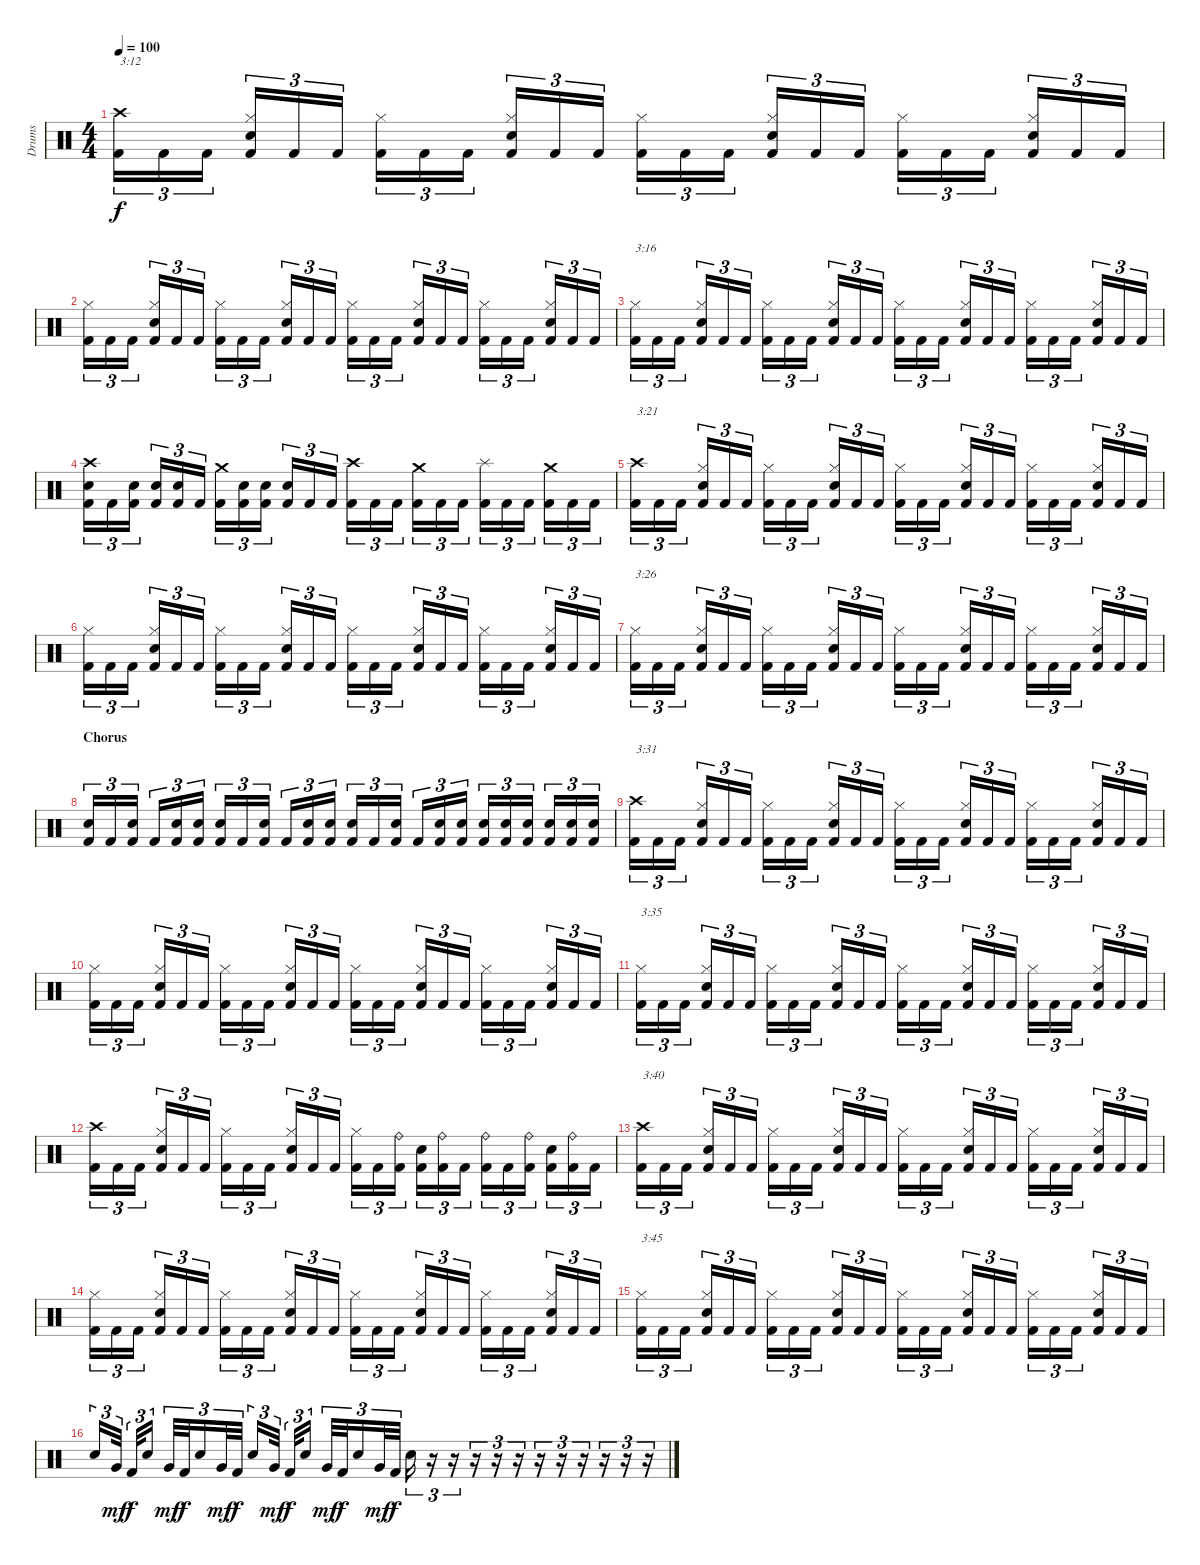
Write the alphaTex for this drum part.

\track ("Drums" "Drums") {instrument percussion}
\staff {score}
\articulation defaults
\ts (4 4)
\tempo 100
\clef neutral
\ks c
("Crash high (hit)" "Kick (hit) 2").16{tu (3 2) txt "3:12" dy f} "Kick (hit) 2".16{tu (3 2)} "Kick (hit) 2".16{tu (3 2)} ("Hi-Hat (closed)" "Snare (hit) 2" "Kick (hit) 2").16{tu (3 2)} "Kick (hit) 2".16{tu (3 2)} "Kick (hit) 2".16{tu (3 2)} ("Hi-Hat (closed)" "Kick (hit) 2").16{tu (3 2)} "Kick (hit) 2".16{tu (3 2)} "Kick (hit) 2".16{tu (3 2)} ("Hi-Hat (closed)" "Snare (hit) 2" "Kick (hit) 2").16{tu (3 2)} "Kick (hit) 2".16{tu (3 2)} "Kick (hit) 2".16{tu (3 2)} ("Hi-Hat (closed)" "Kick (hit) 2").16{tu (3 2)} "Kick (hit) 2".16{tu (3 2)} "Kick (hit) 2".16{tu (3 2)} ("Hi-Hat (closed)" "Snare (hit) 2" "Kick (hit) 2").16{tu (3 2)} "Kick (hit) 2".16{tu (3 2)} "Kick (hit) 2".16{tu (3 2)} ("Hi-Hat (closed)" "Kick (hit) 2").16{tu (3 2)} "Kick (hit) 2".16{tu (3 2)} "Kick (hit) 2".16{tu (3 2)} ("Hi-Hat (closed)" "Snare (hit) 2" "Kick (hit) 2").16{tu (3 2)} "Kick (hit) 2".16{tu (3 2)} "Kick (hit) 2".16{tu (3 2)} |
("Hi-Hat (closed)" "Kick (hit) 2").16{tu (3 2)} "Kick (hit) 2".16{tu (3 2)} "Kick (hit) 2".16{tu (3 2)} ("Hi-Hat (closed)" "Snare (hit) 2" "Kick (hit) 2").16{tu (3 2)} "Kick (hit) 2".16{tu (3 2)} "Kick (hit) 2".16{tu (3 2)} ("Hi-Hat (closed)" "Kick (hit) 2").16{tu (3 2)} "Kick (hit) 2".16{tu (3 2)} "Kick (hit) 2".16{tu (3 2)} ("Hi-Hat (closed)" "Snare (hit) 2" "Kick (hit) 2").16{tu (3 2)} "Kick (hit) 2".16{tu (3 2)} "Kick (hit) 2".16{tu (3 2)} ("Hi-Hat (closed)" "Kick (hit) 2").16{tu (3 2)} "Kick (hit) 2".16{tu (3 2)} "Kick (hit) 2".16{tu (3 2)} ("Hi-Hat (closed)" "Snare (hit) 2" "Kick (hit) 2").16{tu (3 2)} "Kick (hit) 2".16{tu (3 2)} "Kick (hit) 2".16{tu (3 2)} ("Hi-Hat (closed)" "Kick (hit) 2").16{tu (3 2)} "Kick (hit) 2".16{tu (3 2)} "Kick (hit) 2".16{tu (3 2)} ("Hi-Hat (closed)" "Snare (hit) 2" "Kick (hit) 2").16{tu (3 2)} "Kick (hit) 2".16{tu (3 2)} "Kick (hit) 2".16{tu (3 2)} |
("Hi-Hat (closed)" "Kick (hit) 2").16{tu (3 2) txt "3:16"} "Kick (hit) 2".16{tu (3 2)} "Kick (hit) 2".16{tu (3 2)} ("Hi-Hat (closed)" "Snare (hit) 2" "Kick (hit) 2").16{tu (3 2)} "Kick (hit) 2".16{tu (3 2)} "Kick (hit) 2".16{tu (3 2)} ("Hi-Hat (closed)" "Kick (hit) 2").16{tu (3 2)} "Kick (hit) 2".16{tu (3 2)} "Kick (hit) 2".16{tu (3 2)} ("Hi-Hat (closed)" "Snare (hit) 2" "Kick (hit) 2").16{tu (3 2)} "Kick (hit) 2".16{tu (3 2)} "Kick (hit) 2".16{tu (3 2)} ("Hi-Hat (closed)" "Kick (hit) 2").16{tu (3 2)} "Kick (hit) 2".16{tu (3 2)} "Kick (hit) 2".16{tu (3 2)} ("Hi-Hat (closed)" "Snare (hit) 2" "Kick (hit) 2").16{tu (3 2)} "Kick (hit) 2".16{tu (3 2)} "Kick (hit) 2".16{tu (3 2)} ("Hi-Hat (closed)" "Kick (hit) 2").16{tu (3 2)} "Kick (hit) 2".16{tu (3 2)} "Kick (hit) 2".16{tu (3 2)} ("Hi-Hat (closed)" "Snare (hit) 2" "Kick (hit) 2").16{tu (3 2)} "Kick (hit) 2".16{tu (3 2)} "Kick (hit) 2".16{tu (3 2)} |
("Crash high (hit)" "Snare (hit) 2" "Kick (hit) 2").16{tu (3 2)} "Kick (hit) 2".16{tu (3 2)} ("Snare (hit) 2" "Kick (hit) 2").16{tu (3 2)} ("Snare (hit) 2" "Kick (hit) 2").16{tu (3 2)} ("Snare (hit) 2" "Kick (hit) 2").16{tu (3 2)} "Kick (hit) 2".16{tu (3 2)} ("Crash medium (hit)" "Kick (hit) 2").16{tu (3 2)} ("Snare (hit) 2" "Kick (hit) 2").16{tu (3 2)} ("Snare (hit) 2" "Kick (hit) 2").16{tu (3 2)} ("Snare (hit) 2" "Kick (hit) 2").16{tu (3 2)} "Kick (hit) 2".16{tu (3 2)} "Kick (hit) 2".16{tu (3 2)} ("Crash high (hit)" "Kick (hit) 2").16{tu (3 2)} "Kick (hit) 2".16{tu (3 2)} "Kick (hit) 2".16{tu (3 2)} ("Crash medium (hit)" "Kick (hit) 2").16{tu (3 2)} "Kick (hit) 2".16{tu (3 2)} "Kick (hit) 2".16{tu (3 2)} ("Splash (hit)" "Kick (hit) 2").16{tu (3 2)} "Kick (hit) 2".16{tu (3 2)} "Kick (hit) 2".16{tu (3 2)} ("Crash medium (hit)" "Kick (hit) 2").16{tu (3 2)} "Kick (hit) 2".16{tu (3 2)} "Kick (hit) 2".16{tu (3 2)} |
("Crash high (hit)" "Kick (hit) 2").16{tu (3 2) txt "3:21"} "Kick (hit) 2".16{tu (3 2)} "Kick (hit) 2".16{tu (3 2)} ("Hi-Hat (closed)" "Snare (hit) 2" "Kick (hit) 2").16{tu (3 2)} "Kick (hit) 2".16{tu (3 2)} "Kick (hit) 2".16{tu (3 2)} ("Hi-Hat (closed)" "Kick (hit) 2").16{tu (3 2)} "Kick (hit) 2".16{tu (3 2)} "Kick (hit) 2".16{tu (3 2)} ("Hi-Hat (closed)" "Snare (hit) 2" "Kick (hit) 2").16{tu (3 2)} "Kick (hit) 2".16{tu (3 2)} "Kick (hit) 2".16{tu (3 2)} ("Hi-Hat (closed)" "Kick (hit) 2").16{tu (3 2)} "Kick (hit) 2".16{tu (3 2)} "Kick (hit) 2".16{tu (3 2)} ("Hi-Hat (closed)" "Snare (hit) 2" "Kick (hit) 2").16{tu (3 2)} "Kick (hit) 2".16{tu (3 2)} "Kick (hit) 2".16{tu (3 2)} ("Hi-Hat (closed)" "Kick (hit) 2").16{tu (3 2)} "Kick (hit) 2".16{tu (3 2)} "Kick (hit) 2".16{tu (3 2)} ("Hi-Hat (closed)" "Snare (hit) 2" "Kick (hit) 2").16{tu (3 2)} "Kick (hit) 2".16{tu (3 2)} "Kick (hit) 2".16{tu (3 2)} |
("Hi-Hat (closed)" "Kick (hit) 2").16{tu (3 2)} "Kick (hit) 2".16{tu (3 2)} "Kick (hit) 2".16{tu (3 2)} ("Hi-Hat (closed)" "Snare (hit) 2" "Kick (hit) 2").16{tu (3 2)} "Kick (hit) 2".16{tu (3 2)} "Kick (hit) 2".16{tu (3 2)} ("Hi-Hat (closed)" "Kick (hit) 2").16{tu (3 2)} "Kick (hit) 2".16{tu (3 2)} "Kick (hit) 2".16{tu (3 2)} ("Hi-Hat (closed)" "Snare (hit) 2" "Kick (hit) 2").16{tu (3 2)} "Kick (hit) 2".16{tu (3 2)} "Kick (hit) 2".16{tu (3 2)} ("Hi-Hat (closed)" "Kick (hit) 2").16{tu (3 2)} "Kick (hit) 2".16{tu (3 2)} "Kick (hit) 2".16{tu (3 2)} ("Hi-Hat (closed)" "Snare (hit) 2" "Kick (hit) 2").16{tu (3 2)} "Kick (hit) 2".16{tu (3 2)} "Kick (hit) 2".16{tu (3 2)} ("Hi-Hat (closed)" "Kick (hit) 2").16{tu (3 2)} "Kick (hit) 2".16{tu (3 2)} "Kick (hit) 2".16{tu (3 2)} ("Hi-Hat (closed)" "Snare (hit) 2" "Kick (hit) 2").16{tu (3 2)} "Kick (hit) 2".16{tu (3 2)} "Kick (hit) 2".16{tu (3 2)} |
("Hi-Hat (closed)" "Kick (hit) 2").16{tu (3 2) txt "3:26"} "Kick (hit) 2".16{tu (3 2)} "Kick (hit) 2".16{tu (3 2)} ("Hi-Hat (closed)" "Snare (hit) 2" "Kick (hit) 2").16{tu (3 2)} "Kick (hit) 2".16{tu (3 2)} "Kick (hit) 2".16{tu (3 2)} ("Hi-Hat (closed)" "Kick (hit) 2").16{tu (3 2)} "Kick (hit) 2".16{tu (3 2)} "Kick (hit) 2".16{tu (3 2)} ("Hi-Hat (closed)" "Snare (hit) 2" "Kick (hit) 2").16{tu (3 2)} "Kick (hit) 2".16{tu (3 2)} "Kick (hit) 2".16{tu (3 2)} ("Hi-Hat (closed)" "Kick (hit) 2").16{tu (3 2)} "Kick (hit) 2".16{tu (3 2)} "Kick (hit) 2".16{tu (3 2)} ("Hi-Hat (closed)" "Snare (hit) 2" "Kick (hit) 2").16{tu (3 2)} "Kick (hit) 2".16{tu (3 2)} "Kick (hit) 2".16{tu (3 2)} ("Hi-Hat (closed)" "Kick (hit) 2").16{tu (3 2)} "Kick (hit) 2".16{tu (3 2)} "Kick (hit) 2".16{tu (3 2)} ("Hi-Hat (closed)" "Snare (hit) 2" "Kick (hit) 2").16{tu (3 2)} "Kick (hit) 2".16{tu (3 2)} "Kick (hit) 2".16{tu (3 2)} |
\section ("" "Chorus")
("Snare (hit) 2" "Kick (hit) 2").16{tu (3 2)} "Kick (hit) 2".16{tu (3 2)} ("Snare (hit) 2" "Kick (hit) 2").16{tu (3 2)} "Kick (hit) 2".16{tu (3 2)} ("Snare (hit) 2" "Kick (hit) 2").16{tu (3 2)} ("Snare (hit) 2" "Kick (hit) 2").16{tu (3 2)} ("Snare (hit) 2" "Kick (hit) 2").16{tu (3 2)} "Kick (hit) 2".16{tu (3 2)} ("Snare (hit) 2" "Kick (hit) 2").16{tu (3 2)} "Kick (hit) 2".16{tu (3 2)} ("Snare (hit) 2" "Kick (hit) 2").16{tu (3 2)} ("Snare (hit) 2" "Kick (hit) 2").16{tu (3 2)} ("Snare (hit) 2" "Kick (hit) 2").16{tu (3 2)} "Kick (hit) 2".16{tu (3 2)} ("Snare (hit) 2" "Kick (hit) 2").16{tu (3 2)} "Kick (hit) 2".16{tu (3 2)} ("Snare (hit) 2" "Kick (hit) 2").16{tu (3 2)} ("Snare (hit) 2" "Kick (hit) 2").16{tu (3 2)} ("Snare (hit) 2" "Kick (hit) 2").16{tu (3 2)} ("Snare (hit) 2" "Kick (hit) 2").16{tu (3 2)} ("Snare (hit) 2" "Kick (hit) 2").16{tu (3 2)} ("Snare (hit) 2" "Kick (hit) 2").16{tu (3 2)} ("Snare (hit) 2" "Kick (hit) 2").16{tu (3 2)} ("Snare (hit) 2" "Kick (hit) 2").16{tu (3 2)} |
("Crash high (hit)" "Kick (hit) 2").16{tu (3 2) txt "3:31"} "Kick (hit) 2".16{tu (3 2)} "Kick (hit) 2".16{tu (3 2)} ("Hi-Hat (closed)" "Snare (hit) 2" "Kick (hit) 2").16{tu (3 2)} "Kick (hit) 2".16{tu (3 2)} "Kick (hit) 2".16{tu (3 2)} ("Hi-Hat (closed)" "Kick (hit) 2").16{tu (3 2)} "Kick (hit) 2".16{tu (3 2)} "Kick (hit) 2".16{tu (3 2)} ("Hi-Hat (closed)" "Snare (hit) 2" "Kick (hit) 2").16{tu (3 2)} "Kick (hit) 2".16{tu (3 2)} "Kick (hit) 2".16{tu (3 2)} ("Hi-Hat (closed)" "Kick (hit) 2").16{tu (3 2)} "Kick (hit) 2".16{tu (3 2)} "Kick (hit) 2".16{tu (3 2)} ("Hi-Hat (closed)" "Snare (hit) 2" "Kick (hit) 2").16{tu (3 2)} "Kick (hit) 2".16{tu (3 2)} "Kick (hit) 2".16{tu (3 2)} ("Hi-Hat (closed)" "Kick (hit) 2").16{tu (3 2)} "Kick (hit) 2".16{tu (3 2)} "Kick (hit) 2".16{tu (3 2)} ("Hi-Hat (closed)" "Snare (hit) 2" "Kick (hit) 2").16{tu (3 2)} "Kick (hit) 2".16{tu (3 2)} "Kick (hit) 2".16{tu (3 2)} |
("Hi-Hat (closed)" "Kick (hit) 2").16{tu (3 2)} "Kick (hit) 2".16{tu (3 2)} "Kick (hit) 2".16{tu (3 2)} ("Hi-Hat (closed)" "Snare (hit) 2" "Kick (hit) 2").16{tu (3 2)} "Kick (hit) 2".16{tu (3 2)} "Kick (hit) 2".16{tu (3 2)} ("Hi-Hat (closed)" "Kick (hit) 2").16{tu (3 2)} "Kick (hit) 2".16{tu (3 2)} "Kick (hit) 2".16{tu (3 2)} ("Hi-Hat (closed)" "Snare (hit) 2" "Kick (hit) 2").16{tu (3 2)} "Kick (hit) 2".16{tu (3 2)} "Kick (hit) 2".16{tu (3 2)} ("Hi-Hat (closed)" "Kick (hit) 2").16{tu (3 2)} "Kick (hit) 2".16{tu (3 2)} "Kick (hit) 2".16{tu (3 2)} ("Hi-Hat (closed)" "Snare (hit) 2" "Kick (hit) 2").16{tu (3 2)} "Kick (hit) 2".16{tu (3 2)} "Kick (hit) 2".16{tu (3 2)} ("Hi-Hat (closed)" "Kick (hit) 2").16{tu (3 2)} "Kick (hit) 2".16{tu (3 2)} "Kick (hit) 2".16{tu (3 2)} ("Hi-Hat (closed)" "Snare (hit) 2" "Kick (hit) 2").16{tu (3 2)} "Kick (hit) 2".16{tu (3 2)} "Kick (hit) 2".16{tu (3 2)} |
("Hi-Hat (closed)" "Kick (hit) 2").16{tu (3 2) txt "3:35"} "Kick (hit) 2".16{tu (3 2)} "Kick (hit) 2".16{tu (3 2)} ("Hi-Hat (closed)" "Snare (hit) 2" "Kick (hit) 2").16{tu (3 2)} "Kick (hit) 2".16{tu (3 2)} "Kick (hit) 2".16{tu (3 2)} ("Hi-Hat (closed)" "Kick (hit) 2").16{tu (3 2)} "Kick (hit) 2".16{tu (3 2)} "Kick (hit) 2".16{tu (3 2)} ("Hi-Hat (closed)" "Snare (hit) 2" "Kick (hit) 2").16{tu (3 2)} "Kick (hit) 2".16{tu (3 2)} "Kick (hit) 2".16{tu (3 2)} ("Hi-Hat (closed)" "Kick (hit) 2").16{tu (3 2)} "Kick (hit) 2".16{tu (3 2)} "Kick (hit) 2".16{tu (3 2)} ("Hi-Hat (closed)" "Snare (hit) 2" "Kick (hit) 2").16{tu (3 2)} "Kick (hit) 2".16{tu (3 2)} "Kick (hit) 2".16{tu (3 2)} ("Hi-Hat (closed)" "Kick (hit) 2").16{tu (3 2)} "Kick (hit) 2".16{tu (3 2)} "Kick (hit) 2".16{tu (3 2)} ("Hi-Hat (closed)" "Snare (hit) 2" "Kick (hit) 2").16{tu (3 2)} "Kick (hit) 2".16{tu (3 2)} "Kick (hit) 2".16{tu (3 2)} |
("Crash high (hit)" "Kick (hit) 2").16{tu (3 2)} "Kick (hit) 2".16{tu (3 2)} "Kick (hit) 2".16{tu (3 2)} ("Hi-Hat (closed)" "Snare (hit) 2" "Kick (hit) 2").16{tu (3 2)} "Kick (hit) 2".16{tu (3 2)} "Kick (hit) 2".16{tu (3 2)} ("Hi-Hat (closed)" "Kick (hit) 2").16{tu (3 2)} "Kick (hit) 2".16{tu (3 2)} "Kick (hit) 2".16{tu (3 2)} ("Hi-Hat (closed)" "Snare (hit) 2" "Kick (hit) 2").16{tu (3 2)} "Kick (hit) 2".16{tu (3 2)} "Kick (hit) 2".16{tu (3 2)} ("Hi-Hat (closed)" "Kick (hit) 2").16{tu (3 2)} "Kick (hit) 2".16{tu (3 2)} ("Ride (bell)" "Kick (hit) 2").16{tu (3 2)} ("Snare (hit) 2" "Kick (hit) 2").16{tu (3 2)} ("Ride (bell)" "Kick (hit) 2").16{tu (3 2)} "Kick (hit) 2".16{tu (3 2)} ("Ride (bell)" "Kick (hit) 2").16{tu (3 2)} "Kick (hit) 2".16{tu (3 2)} ("Ride (bell)" "Kick (hit) 2").16{tu (3 2)} ("Snare (hit) 2" "Kick (hit) 2").16{tu (3 2)} ("Ride (bell)" "Kick (hit) 2").16{tu (3 2)} "Kick (hit) 2".16{tu (3 2)} |
("Crash high (hit)" "Kick (hit) 2").16{tu (3 2) txt "3:40"} "Kick (hit) 2".16{tu (3 2)} "Kick (hit) 2".16{tu (3 2)} ("Hi-Hat (closed)" "Snare (hit) 2" "Kick (hit) 2").16{tu (3 2)} "Kick (hit) 2".16{tu (3 2)} "Kick (hit) 2".16{tu (3 2)} ("Hi-Hat (closed)" "Kick (hit) 2").16{tu (3 2)} "Kick (hit) 2".16{tu (3 2)} "Kick (hit) 2".16{tu (3 2)} ("Hi-Hat (closed)" "Snare (hit) 2" "Kick (hit) 2").16{tu (3 2)} "Kick (hit) 2".16{tu (3 2)} "Kick (hit) 2".16{tu (3 2)} ("Hi-Hat (closed)" "Kick (hit) 2").16{tu (3 2)} "Kick (hit) 2".16{tu (3 2)} "Kick (hit) 2".16{tu (3 2)} ("Hi-Hat (closed)" "Snare (hit) 2" "Kick (hit) 2").16{tu (3 2)} "Kick (hit) 2".16{tu (3 2)} "Kick (hit) 2".16{tu (3 2)} ("Hi-Hat (closed)" "Kick (hit) 2").16{tu (3 2)} "Kick (hit) 2".16{tu (3 2)} "Kick (hit) 2".16{tu (3 2)} ("Hi-Hat (closed)" "Snare (hit) 2" "Kick (hit) 2").16{tu (3 2)} "Kick (hit) 2".16{tu (3 2)} "Kick (hit) 2".16{tu (3 2)} |
("Hi-Hat (closed)" "Kick (hit) 2").16{tu (3 2)} "Kick (hit) 2".16{tu (3 2)} "Kick (hit) 2".16{tu (3 2)} ("Hi-Hat (closed)" "Snare (hit) 2" "Kick (hit) 2").16{tu (3 2)} "Kick (hit) 2".16{tu (3 2)} "Kick (hit) 2".16{tu (3 2)} ("Hi-Hat (closed)" "Kick (hit) 2").16{tu (3 2)} "Kick (hit) 2".16{tu (3 2)} "Kick (hit) 2".16{tu (3 2)} ("Hi-Hat (closed)" "Snare (hit) 2" "Kick (hit) 2").16{tu (3 2)} "Kick (hit) 2".16{tu (3 2)} "Kick (hit) 2".16{tu (3 2)} ("Hi-Hat (closed)" "Kick (hit) 2").16{tu (3 2)} "Kick (hit) 2".16{tu (3 2)} "Kick (hit) 2".16{tu (3 2)} ("Hi-Hat (closed)" "Snare (hit) 2" "Kick (hit) 2").16{tu (3 2)} "Kick (hit) 2".16{tu (3 2)} "Kick (hit) 2".16{tu (3 2)} ("Hi-Hat (closed)" "Kick (hit) 2").16{tu (3 2)} "Kick (hit) 2".16{tu (3 2)} "Kick (hit) 2".16{tu (3 2)} ("Hi-Hat (closed)" "Snare (hit) 2" "Kick (hit) 2").16{tu (3 2)} "Kick (hit) 2".16{tu (3 2)} "Kick (hit) 2".16{tu (3 2)} |
("Hi-Hat (closed)" "Kick (hit) 2").16{tu (3 2) txt "3:45"} "Kick (hit) 2".16{tu (3 2)} "Kick (hit) 2".16{tu (3 2)} ("Hi-Hat (closed)" "Snare (hit) 2" "Kick (hit) 2").16{tu (3 2)} "Kick (hit) 2".16{tu (3 2)} "Kick (hit) 2".16{tu (3 2)} ("Hi-Hat (closed)" "Kick (hit) 2").16{tu (3 2)} "Kick (hit) 2".16{tu (3 2)} "Kick (hit) 2".16{tu (3 2)} ("Hi-Hat (closed)" "Snare (hit) 2" "Kick (hit) 2").16{tu (3 2)} "Kick (hit) 2".16{tu (3 2)} "Kick (hit) 2".16{tu (3 2)} ("Hi-Hat (closed)" "Kick (hit) 2").16{tu (3 2)} "Kick (hit) 2".16{tu (3 2)} "Kick (hit) 2".16{tu (3 2)} ("Hi-Hat (closed)" "Snare (hit) 2" "Kick (hit) 2").16{tu (3 2)} "Kick (hit) 2".16{tu (3 2)} "Kick (hit) 2".16{tu (3 2)} ("Hi-Hat (closed)" "Kick (hit) 2").16{tu (3 2)} "Kick (hit) 2".16{tu (3 2)} "Kick (hit) 2".16{tu (3 2)} ("Hi-Hat (closed)" "Snare (hit) 2" "Kick (hit) 2").16{tu (3 2)} "Kick (hit) 2".16{tu (3 2)} "Kick (hit) 2".16{tu (3 2)} |
"Snare (hit) 2".16{tu (3 2)} "Very Low Tom (hit)".32{tu (3 2) dy mf} "Kick (hit) 2".32{tu (3 2) dy f} "Snare (hit) 2".16{tu (3 2)} "Very Low Tom (hit)".32{tu (3 2) dy mf} "Kick (hit) 2".32{tu (3 2) dy f} "Snare (hit) 2".16{tu (3 2)} "Very Low Tom (hit)".32{tu (3 2) dy mf} "Kick (hit) 2".32{tu (3 2) dy f} "Snare (hit) 2".16{tu (3 2)} "Very Low Tom (hit)".32{tu (3 2) dy mf} "Kick (hit) 2".32{tu (3 2) dy f} "Snare (hit) 2".16{tu (3 2)} "Very Low Tom (hit)".32{tu (3 2) dy mf} "Kick (hit) 2".32{tu (3 2) dy f} "Snare (hit) 2".16{tu (3 2)} "Very Low Tom (hit)".32{tu (3 2) dy mf} "Kick (hit) 2".32{tu (3 2) dy f} "Snare (hit) 2".16{tu (3 2)} r.16{tu (3 2)} r.16{tu (3 2)} r.16{tu (3 2)} r.16{tu (3 2)} r.16{tu (3 2)} r.16{tu (3 2)} r.16{tu (3 2)} r.16{tu (3 2)} r.16{tu (3 2)} r.16{tu (3 2)} r.16{tu (3 2)}
